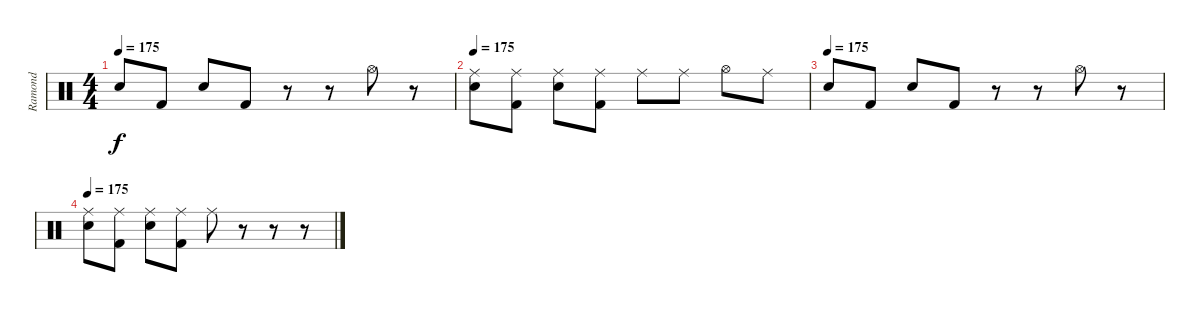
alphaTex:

\track ("Ramond" "Ramond") {instrument percussion}
\staff {score}
\articulation defaults
\ts (4 4)
\tempo 175
\clef neutral
\ks c "Electric Snare (hit)".8{dy f} "Kick (hit) 2".8 "Electric Snare (hit)".8 "Kick (hit) 2".8
r.8 r.8 "Hi-Hat (open)".8 r.8 |
\tempo 175
("Ride (middle)" "Electric Snare (hit)").8 ("Ride (middle)" "Kick (hit) 2").8 ("Ride (middle)" "Electric Snare (hit)").8 ("Ride (middle)" "Kick (hit) 2").8 "Ride (middle)".8 "Ride (middle)".8 "Hi-Hat (open)".8 "Ride (middle)".8 |
\tempo (175)
"Electric Snare (hit)".8 "Kick (hit) 2".8 "Electric Snare (hit)".8 "Kick (hit) 2".8 r.8 r.8 "Hi-Hat (open)".8 r.8 |
\tempo 175
("Ride (middle)" "Electric Snare (hit)").8 ("Ride (middle)" "Kick (hit) 2").8 ("Ride (middle)" "Electric Snare (hit)").8 ("Ride (middle)" "Kick (hit) 2").8 "Ride (middle)".8 r.8 r.8 r.8
